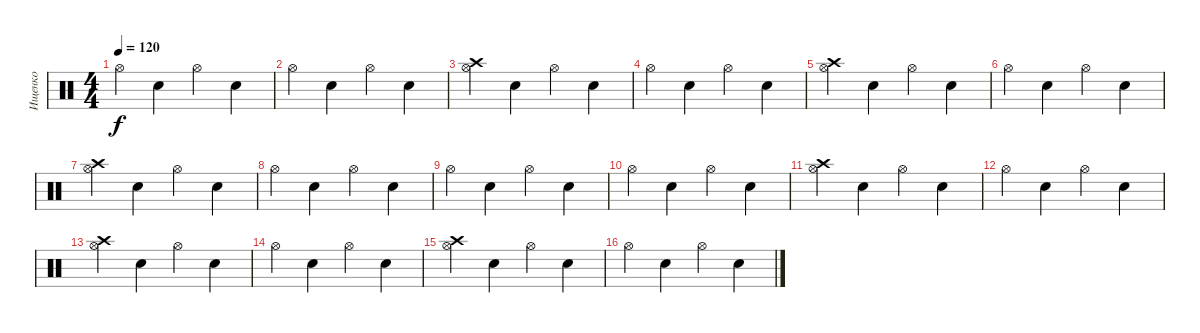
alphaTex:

\track ("Ищенко" "Ищенко") {instrument percussion}
\staff {score}
\articulation defaults
\ts (4 4)
\tempo 120
\clef neutral
\ks c "Hi-Hat (open)".4{dy f} "Electric Snare (hit)".4 "Hi-Hat (open)".4 "Electric Snare (hit)".4
|
"Hi-Hat (open)".4 "Electric Snare (hit)".4 "Hi-Hat (open)".4 "Electric Snare (hit)".4 |
("Hi-Hat (open)" "Crash high (hit)").4 "Electric Snare (hit)".4 "Hi-Hat (open)".4 "Electric Snare (hit)".4 |
"Hi-Hat (open)".4 "Electric Snare (hit)".4 "Hi-Hat (open)".4 "Electric Snare (hit)".4 |
("Hi-Hat (open)" "Crash high (hit)").4 "Electric Snare (hit)".4 "Hi-Hat (open)".4 "Electric Snare (hit)".4 |
"Hi-Hat (open)".4 "Electric Snare (hit)".4 "Hi-Hat (open)".4 "Electric Snare (hit)".4 |
("Hi-Hat (open)" "Crash high (hit)").4 "Electric Snare (hit)".4 "Hi-Hat (open)".4 "Electric Snare (hit)".4 |
"Hi-Hat (open)".4 "Electric Snare (hit)".4 "Hi-Hat (open)".4 "Electric Snare (hit)".4 |
"Hi-Hat (open)".4 "Electric Snare (hit)".4 "Hi-Hat (open)".4 "Electric Snare (hit)".4 |
"Hi-Hat (open)".4 "Electric Snare (hit)".4 "Hi-Hat (open)".4 "Electric Snare (hit)".4 |
("Hi-Hat (open)" "Crash high (hit)").4 "Electric Snare (hit)".4 "Hi-Hat (open)".4 "Electric Snare (hit)".4 |
"Hi-Hat (open)".4 "Electric Snare (hit)".4 "Hi-Hat (open)".4 "Electric Snare (hit)".4 |
("Hi-Hat (open)" "Crash high (hit)").4 "Electric Snare (hit)".4 "Hi-Hat (open)".4 "Electric Snare (hit)".4 |
"Hi-Hat (open)".4 "Electric Snare (hit)".4 "Hi-Hat (open)".4 "Electric Snare (hit)".4 |
("Hi-Hat (open)" "Crash high (hit)").4 "Electric Snare (hit)".4 "Hi-Hat (open)".4 "Electric Snare (hit)".4 |
"Hi-Hat (open)".4 "Electric Snare (hit)".4 "Hi-Hat (open)".4 "Electric Snare (hit)".4
